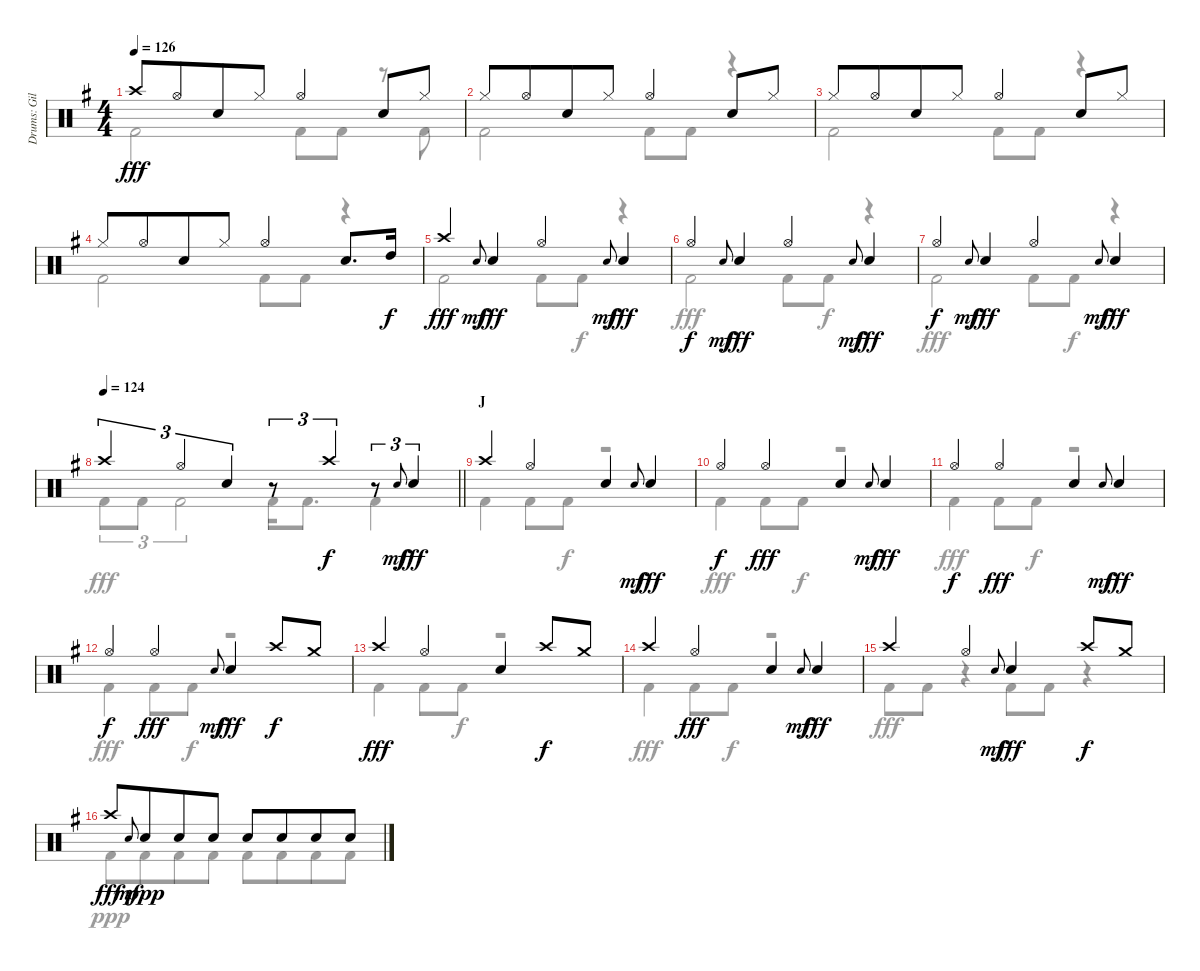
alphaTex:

\track ("Drums: Gil" "Drums: Gil") {instrument percussion}
\staff {score}
\articulation defaults
\voice
\ts (4 4)
\tempo 126
\clef neutral
\ks g "Crash high (hit)".8{dy fff} "Hi-Hat (open)".8{beam merge} "Snare (hit) 2".8 "Hi-Hat (closed)".8 "Hi-Hat (open)".4 "Snare (hit) 2".8 "Hi-Hat (closed)".8
|
"Hi-Hat (closed)".8 "Hi-Hat (open)".8{beam merge} "Snare (hit) 2".8 "Hi-Hat (closed)".8 "Hi-Hat (open)".4 "Snare (hit) 2".8 "Hi-Hat (closed)".8 |
"Hi-Hat (closed)".8 "Hi-Hat (open)".8{beam merge} "Snare (hit) 2".8 "Hi-Hat (closed)".8 "Hi-Hat (open)".4 "Snare (hit) 2".8 "Hi-Hat (closed)".8 |
"Hi-Hat (closed)".8 "Hi-Hat (open)".8{beam merge} "Snare (hit) 2".8 "Hi-Hat (closed)".8 "Hi-Hat (open)".4 "Snare (hit) 2".8{d} "High Tom (hit)".16{dy f} |
"Crash high (hit)".4{dy fff} "Electric Snare (hit)".8{gr onbeat dy mf} "Snare (hit) 2".4{dy fff} "Hi-Hat (open)".4 "Electric Snare (hit)".8{gr onbeat dy mf} "Snare (hit) 2".4{dy fff} |
"Hi-Hat (open)".4{dy f} "Electric Snare (hit)".8{gr onbeat dy mf} "Snare (hit) 2".4{dy fff} "Hi-Hat (open)".4 "Electric Snare (hit)".8{gr onbeat dy mf} "Snare (hit) 2".4{dy fff} |
"Hi-Hat (open)".4{dy f} "Electric Snare (hit)".8{gr onbeat dy mf} "Snare (hit) 2".4{dy fff} "Hi-Hat (open)".4 "Electric Snare (hit)".8{gr onbeat dy mf} "Snare (hit) 2".4{dy fff} |
\tempo 124
\barLineRight lightlight "Crash high (hit)".4{tu (3 2)} "Hi-Hat (open)".4{tu (3 2)} "Snare (hit) 2".4{tu (3 2)}
r.8{tu (3 2)} "Crash high (hit)".4{tu (3 2) dy f} r.8{tu (3 2)} "Electric Snare (hit)".8{gr onbeat dy mf} "Snare (hit) 2".4{tu (3 2) dy fff} |
\section ("" "J")
"Crash high (hit)".4 "Hi-Hat (open)".4 "Snare (hit) 2".4 "Electric Snare (hit)".8{gr onbeat dy mf} "Snare (hit) 2".4{dy fff} |
"Hi-Hat (open)".4{dy f} "Hi-Hat (open)".4{dy fff} "Snare (hit) 2".4 "Electric Snare (hit)".8{gr onbeat dy mf} "Snare (hit) 2".4{dy fff} |
"Hi-Hat (open)".4{dy f} "Hi-Hat (open)".4{dy fff} "Snare (hit) 2".4 "Electric Snare (hit)".8{gr onbeat dy mf} "Snare (hit) 2".4{dy fff} |
"Hi-Hat (open)".4{dy f} "Hi-Hat (open)".4{dy fff} "Electric Snare (hit)".8{gr onbeat dy mf} "Snare (hit) 2".4{dy fff} "Crash high (hit)".8{dy f} "Crash medium (hit)".8 |
"Crash high (hit)".4{dy fff} "Hi-Hat (open)".4 "Snare (hit) 2".4 "Crash high (hit)".8{dy f} "Crash medium (hit)".8 |
"Crash high (hit)".4 "Hi-Hat (open)".4{dy fff} "Snare (hit) 2".4 "Electric Snare (hit)".8{gr onbeat dy mf} "Snare (hit) 2".4{dy fff} |
"Crash high (hit)".4 "Hi-Hat (open)".4 "Electric Snare (hit)".8{gr onbeat dy mf} "Snare (hit) 2".4{dy fff} "Crash high (hit)".8{dy f} "Crash medium (hit)".8 |
"Crash high (hit)".8{dy fff} "Electric Snare (hit)".8{gr onbeat dy mf} "Snare (hit) 2".8{dy ppp beam merge} "Snare (hit) 2".8 "Snare (hit) 2".8 "Snare (hit) 2".8 "Snare (hit) 2".8{beam merge} "Snare (hit) 2".8 "Snare (hit) 2".8
\voice
\clef neutral
\ottava regular
\simile none
\ks g "Kick (hit) 2".2{dy fff} "Kick (hit) 2".8 "Kick (hit) 2".8
r.8 "Kick (hit) 2".8 |
"Kick (hit) 2".2 "Kick (hit) 2".8 "Kick (hit) 2".8 r.4 |
"Kick (hit) 2".2 "Kick (hit) 2".8 "Kick (hit) 2".8 r.4 |
"Kick (hit) 2".2 "Kick (hit) 2".8 "Kick (hit) 2".8 r.4 |
"Kick (hit) 2".2 "Kick (hit) 2".8{beam merge} "Kick (hit) 2".8{dy f} r.4 |
"Kick (hit) 2".2{dy fff} "Kick (hit) 2".8{beam merge} "Kick (hit) 2".8{dy f} r.4 |
"Kick (hit) 2".2{dy fff} "Kick (hit) 2".8{beam merge} "Kick (hit) 2".8{dy f} r.4 |
\barLineRight lightlight "Kick (hit) 2".8{tu (3 2) dy fff} "Kick (hit) 2".8{tu (3 2)} "Kick (hit) 2".2{tu (3 2)} "Kick (hit) 2".16 "Kick (hit) 2".8{d} "Kick (hit) 2".4
|
"Kick (hit) 2".4 "Kick (hit) 2".8 "Kick (hit) 2".8{dy f} r.2 |
"Kick (hit) 2".4{dy fff} "Kick (hit) 2".8 "Kick (hit) 2".8{dy f} r.2 |
"Kick (hit) 2".4{dy fff} "Kick (hit) 2".8 "Kick (hit) 2".8{dy f} r.2 |
"Kick (hit) 2".4{dy fff} "Kick (hit) 2".8 "Kick (hit) 2".8{dy f} r.2 |
"Kick (hit) 2".4{dy fff} "Kick (hit) 2".8 "Kick (hit) 2".8{dy f} r.2 |
"Kick (hit) 2".4{dy fff} "Kick (hit) 2".8 "Kick (hit) 2".8{dy f} r.2 |
"Kick (hit) 2".8{dy fff} "Kick (hit) 2".8 r.4 "Kick (hit) 2".8 "Kick (hit) 2".8 r.4 |
"Kick (hit) 2".8{dy ppp beam merge} "Kick (hit) 2".8{beam merge} "Kick (hit) 2".8{beam merge} "Kick (hit) 2".8 "Kick (hit) 2".8{beam merge} "Kick (hit) 2".8{beam merge} "Kick (hit) 2".8{beam merge} "Kick (hit) 2".8
